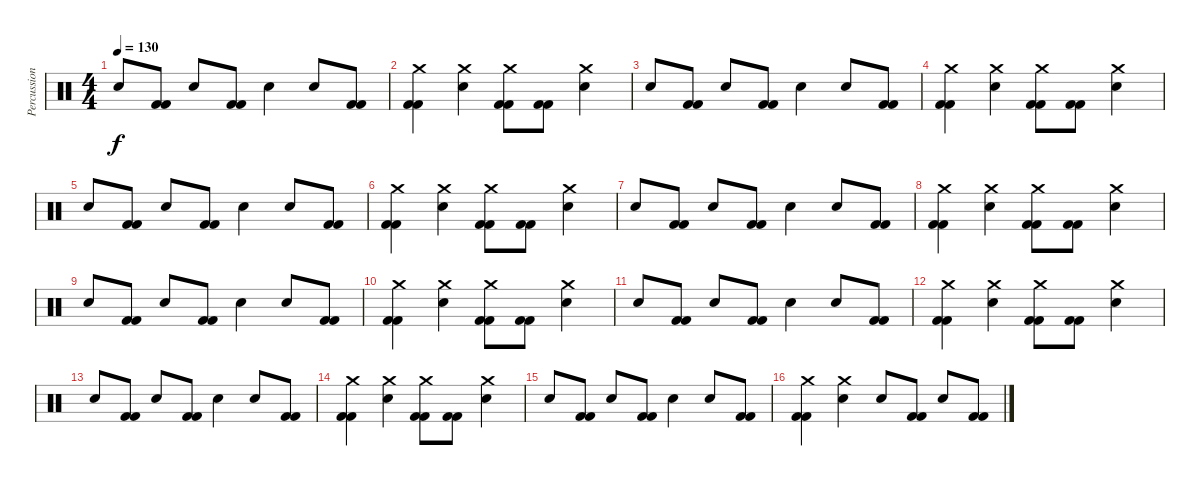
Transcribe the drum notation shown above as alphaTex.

\track ("Percussion" "Percussion") {instrument percussion}
\staff {score}
\articulation defaults
\ts (4 4)
\tempo 130
\clef neutral
\ks c "Snare (hit) 2".8{dy f}
("Kick (hit) 2" "Kick (hit) 2").8 "Snare (hit) 2".8 ("Kick (hit) 2" "Kick (hit) 2").8 "Snare (hit) 2".4 "Snare (hit) 2".8 ("Kick (hit) 2" "Kick (hit) 2").8 |
("Crash medium (hit)" "Kick (hit) 2" "Kick (hit) 2").4 ("Crash medium (hit)" "Snare (hit) 2").4 ("Crash medium (hit)" "Kick (hit) 2" "Kick (hit) 2").8 ("Kick (hit) 2" "Kick (hit) 2").8 ("Crash medium (hit)" "Snare (hit) 2").4 |
"Snare (hit) 2".8 ("Kick (hit) 2" "Kick (hit) 2").8 "Snare (hit) 2".8 ("Kick (hit) 2" "Kick (hit) 2").8 "Snare (hit) 2".4 "Snare (hit) 2".8 ("Kick (hit) 2" "Kick (hit) 2").8 |
("Crash medium (hit)" "Kick (hit) 2" "Kick (hit) 2").4 ("Crash medium (hit)" "Snare (hit) 2").4 ("Crash medium (hit)" "Kick (hit) 2" "Kick (hit) 2").8 ("Kick (hit) 2" "Kick (hit) 2").8 ("Crash medium (hit)" "Snare (hit) 2").4 |
"Snare (hit) 2".8 ("Kick (hit) 2" "Kick (hit) 2").8 "Snare (hit) 2".8 ("Kick (hit) 2" "Kick (hit) 2").8 "Snare (hit) 2".4 "Snare (hit) 2".8 ("Kick (hit) 2" "Kick (hit) 2").8 |
("Crash medium (hit)" "Kick (hit) 2" "Kick (hit) 2").4 ("Crash medium (hit)" "Snare (hit) 2").4 ("Crash medium (hit)" "Kick (hit) 2" "Kick (hit) 2").8 ("Kick (hit) 2" "Kick (hit) 2").8 ("Crash medium (hit)" "Snare (hit) 2").4 |
"Snare (hit) 2".8 ("Kick (hit) 2" "Kick (hit) 2").8 "Snare (hit) 2".8 ("Kick (hit) 2" "Kick (hit) 2").8 "Snare (hit) 2".4 "Snare (hit) 2".8 ("Kick (hit) 2" "Kick (hit) 2").8 |
("Crash medium (hit)" "Kick (hit) 2" "Kick (hit) 2").4 ("Crash medium (hit)" "Snare (hit) 2").4 ("Crash medium (hit)" "Kick (hit) 2" "Kick (hit) 2").8 ("Kick (hit) 2" "Kick (hit) 2").8 ("Crash medium (hit)" "Snare (hit) 2").4 |
"Snare (hit) 2".8 ("Kick (hit) 2" "Kick (hit) 2").8 "Snare (hit) 2".8 ("Kick (hit) 2" "Kick (hit) 2").8 "Snare (hit) 2".4 "Snare (hit) 2".8 ("Kick (hit) 2" "Kick (hit) 2").8 |
("Crash medium (hit)" "Kick (hit) 2" "Kick (hit) 2").4 ("Crash medium (hit)" "Snare (hit) 2").4 ("Crash medium (hit)" "Kick (hit) 2" "Kick (hit) 2").8 ("Kick (hit) 2" "Kick (hit) 2").8 ("Crash medium (hit)" "Snare (hit) 2").4 |
"Snare (hit) 2".8 ("Kick (hit) 2" "Kick (hit) 2").8 "Snare (hit) 2".8 ("Kick (hit) 2" "Kick (hit) 2").8 "Snare (hit) 2".4 "Snare (hit) 2".8 ("Kick (hit) 2" "Kick (hit) 2").8 |
("Crash medium (hit)" "Kick (hit) 2" "Kick (hit) 2").4 ("Crash medium (hit)" "Snare (hit) 2").4 ("Crash medium (hit)" "Kick (hit) 2" "Kick (hit) 2").8 ("Kick (hit) 2" "Kick (hit) 2").8 ("Crash medium (hit)" "Snare (hit) 2").4 |
"Snare (hit) 2".8 ("Kick (hit) 2" "Kick (hit) 2").8 "Snare (hit) 2".8 ("Kick (hit) 2" "Kick (hit) 2").8 "Snare (hit) 2".4 "Snare (hit) 2".8 ("Kick (hit) 2" "Kick (hit) 2").8 |
("Crash medium (hit)" "Kick (hit) 2" "Kick (hit) 2").4 ("Crash medium (hit)" "Snare (hit) 2").4 ("Crash medium (hit)" "Kick (hit) 2" "Kick (hit) 2").8 ("Kick (hit) 2" "Kick (hit) 2").8 ("Crash medium (hit)" "Snare (hit) 2").4 |
"Snare (hit) 2".8 ("Kick (hit) 2" "Kick (hit) 2").8 "Snare (hit) 2".8 ("Kick (hit) 2" "Kick (hit) 2").8 "Snare (hit) 2".4 "Snare (hit) 2".8 ("Kick (hit) 2" "Kick (hit) 2").8 |
("Crash medium (hit)" "Kick (hit) 2" "Kick (hit) 2").4 ("Crash medium (hit)" "Snare (hit) 2").4 "Snare (hit) 2".8 ("Kick (hit) 2" "Kick (hit) 2").8 "Snare (hit) 2".8 ("Kick (hit) 2" "Kick (hit) 2").8
